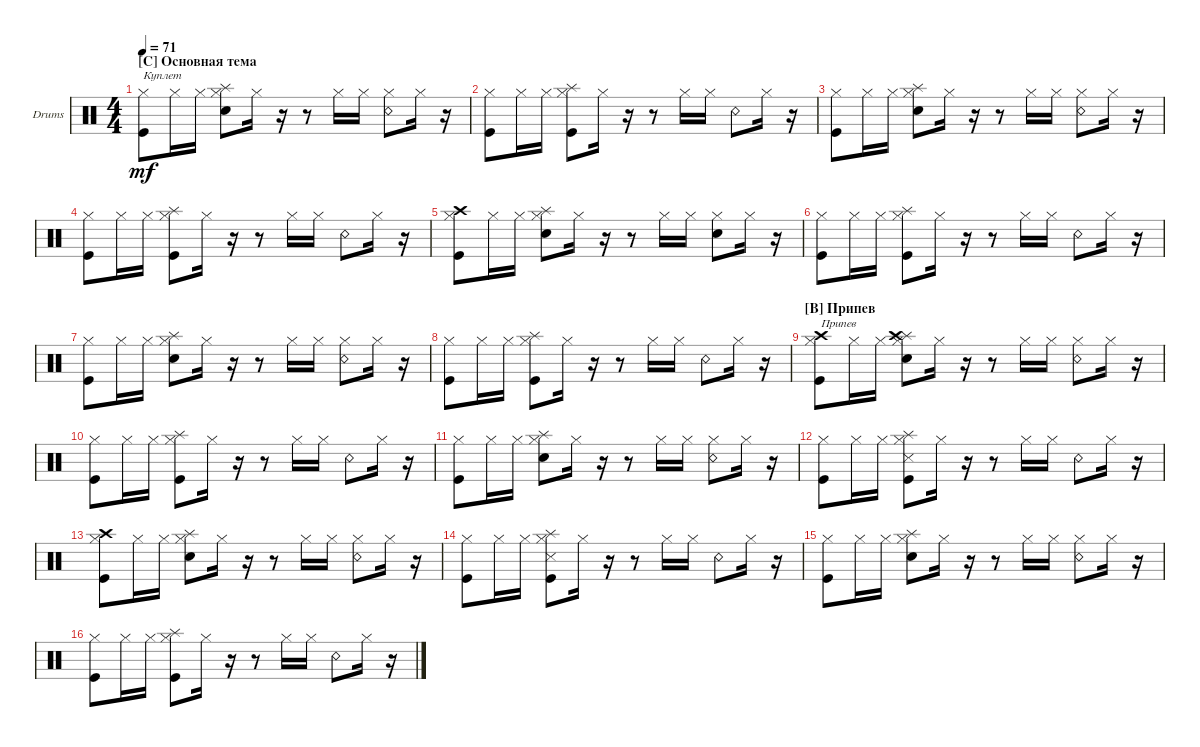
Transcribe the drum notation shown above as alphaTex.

\defaultSystemsLayout 4
\bracketExtendMode groupsimilarinstruments
\firstSystemTrackNameOrientation horizontal
\otherSystemsTrackNameOrientation horizontal
\track ("Drumkit" "Drums") {instrument percussion}
\staff {score}
\articulation defaults
\ts (4 4)
\section ("C" "Основная тема")
\tempo 71
\clef neutral
\ks c
("Hi-Hat (closed)" "Kick (hit)").8{txt "Куплет" dy mf} "Hi-Hat (closed)".16 "Hi-Hat (closed)".16 ("Hi-Hat (closed)" "Snare (hit) 2" "Splash (hit)").8 "Hi-Hat (closed)".16 r.16 r.8 "Hi-Hat (closed)".16 "Hi-Hat (closed)".16 ("Hi-Hat (closed)" "Snare (rim shot)").8 "Hi-Hat (closed)".16 r.16 |
("Hi-Hat (closed)" "Kick (hit)").8 "Hi-Hat (closed)".16 "Hi-Hat (closed)".16 ("Hi-Hat (closed)" "Splash (hit)" "Kick (hit)").8 "Hi-Hat (closed)".16 r.16 r.8 "Hi-Hat (closed)".16 "Hi-Hat (closed)".16 "Snare (rim shot)".8 "Hi-Hat (closed)".16 r.16 |
("Hi-Hat (closed)" "Kick (hit)").8 "Hi-Hat (closed)".16 "Hi-Hat (closed)".16 ("Hi-Hat (closed)" "Snare (hit) 2" "Splash (hit)").8 "Hi-Hat (closed)".16 r.16 r.8 "Hi-Hat (closed)".16 "Hi-Hat (closed)".16 ("Hi-Hat (closed)" "Snare (rim shot)").8 "Hi-Hat (closed)".16 r.16 |
("Hi-Hat (closed)" "Kick (hit)").8 "Hi-Hat (closed)".16 "Hi-Hat (closed)".16 ("Hi-Hat (closed)" "Splash (hit)" "Kick (hit)").8 "Hi-Hat (closed)".16 r.16 r.8 "Hi-Hat (closed)".16 "Hi-Hat (closed)".16 "Snare (rim shot)".8 "Hi-Hat (closed)".16 r.16 |
("Hi-Hat (closed)" "Crash high (hit)" "Kick (hit)").8 "Hi-Hat (closed)".16 "Hi-Hat (closed)".16 ("Hi-Hat (closed)" "Snare (hit) 2" "Splash (hit)").8 "Hi-Hat (closed)".16 r.16 r.8 "Hi-Hat (closed)".16 "Hi-Hat (closed)".16 ("Hi-Hat (closed)" "Snare (hit) 2").8 "Hi-Hat (closed)".16 r.16 |
("Hi-Hat (closed)" "Kick (hit)").8 "Hi-Hat (closed)".16 "Hi-Hat (closed)".16 ("Hi-Hat (closed)" "Splash (hit)" "Kick (hit)").8 "Hi-Hat (closed)".16 r.16 r.8 "Hi-Hat (closed)".16 "Hi-Hat (closed)".16 "Snare (rim shot)".8 "Hi-Hat (closed)".16 r.16 |
("Hi-Hat (closed)" "Kick (hit)").8 "Hi-Hat (closed)".16 "Hi-Hat (closed)".16 ("Hi-Hat (closed)" "Snare (hit) 2" "Splash (hit)").8 "Hi-Hat (closed)".16 r.16 r.8 "Hi-Hat (closed)".16 "Hi-Hat (closed)".16 ("Hi-Hat (closed)" "Snare (rim shot)").8 "Hi-Hat (closed)".16 r.16 |
("Hi-Hat (closed)" "Kick (hit)").8 "Hi-Hat (closed)".16 "Hi-Hat (closed)".16 ("Hi-Hat (closed)" "Splash (hit)" "Kick (hit)").8 "Hi-Hat (closed)".16 r.16 r.8 "Hi-Hat (closed)".16 "Hi-Hat (closed)".16 "Snare (rim shot)".8 "Hi-Hat (closed)".16 r.16 |
\section ("B" "Припев")
("Hi-Hat (closed)" "Crash high (hit)" "Kick (hit)").8{txt "Припев"} "Hi-Hat (closed)".16 "Hi-Hat (closed)".16 ("Hi-Hat (closed)" "Snare (hit) 2" "Splash (hit)" "Crash high (hit)").8 "Hi-Hat (closed)".16 r.16 r.8 "Hi-Hat (closed)".16 "Hi-Hat (closed)".16 ("Hi-Hat (closed)" "Snare (rim shot)").8 "Hi-Hat (closed)".16 r.16 |
("Hi-Hat (closed)" "Kick (hit)").8 "Hi-Hat (closed)".16 "Hi-Hat (closed)".16 ("Hi-Hat (closed)" "Splash (hit)" "Kick (hit)").8 "Hi-Hat (closed)".16 r.16 r.8 "Hi-Hat (closed)".16 "Hi-Hat (closed)".16 "Snare (rim shot)".8 "Hi-Hat (closed)".16 r.16 |
("Hi-Hat (closed)" "Kick (hit)").8 "Hi-Hat (closed)".16 "Hi-Hat (closed)".16 ("Hi-Hat (closed)" "Snare (hit) 2" "Splash (hit)").8 "Hi-Hat (closed)".16 r.16 r.8 "Hi-Hat (closed)".16 "Hi-Hat (closed)".16 ("Hi-Hat (closed)" "Snare (rim shot)").8 "Hi-Hat (closed)".16 r.16 |
("Hi-Hat (closed)" "Kick (hit)").8 "Hi-Hat (closed)".16 "Hi-Hat (closed)".16 ("Hi-Hat (closed)" "Snare (side stick) 3" "Splash (hit)" "Kick (hit)").8 "Hi-Hat (closed)".16 r.16 r.8 "Hi-Hat (closed)".16 "Hi-Hat (closed)".16 "Snare (rim shot)".8 "Hi-Hat (closed)".16 r.16 |
("Hi-Hat (closed)" "Crash high (hit)" "Kick (hit)").8 "Hi-Hat (closed)".16 "Hi-Hat (closed)".16 ("Hi-Hat (closed)" "Snare (hit) 2" "Splash (hit)").8 "Hi-Hat (closed)".16 r.16 r.8 "Hi-Hat (closed)".16 "Hi-Hat (closed)".16 ("Hi-Hat (closed)" "Snare (rim shot)").8 "Hi-Hat (closed)".16 r.16 |
("Hi-Hat (closed)" "Kick (hit)").8 "Hi-Hat (closed)".16 "Hi-Hat (closed)".16 ("Hi-Hat (closed)" "Snare (side stick) 3" "Splash (hit)" "Kick (hit)").8 "Hi-Hat (closed)".16 r.16 r.8 "Hi-Hat (closed)".16 "Hi-Hat (closed)".16 "Snare (rim shot)".8 "Hi-Hat (closed)".16 r.16 |
("Hi-Hat (closed)" "Kick (hit)").8 "Hi-Hat (closed)".16 "Hi-Hat (closed)".16 ("Hi-Hat (closed)" "Snare (hit) 2" "Splash (hit)").8 "Hi-Hat (closed)".16 r.16 r.8 "Hi-Hat (closed)".16 "Hi-Hat (closed)".16 ("Hi-Hat (closed)" "Snare (rim shot)").8 "Hi-Hat (closed)".16 r.16 |
("Hi-Hat (closed)" "Kick (hit)").8 "Hi-Hat (closed)".16 "Hi-Hat (closed)".16 ("Hi-Hat (closed)" "Splash (hit)" "Kick (hit)").8 "Hi-Hat (closed)".16 r.16 r.8 "Hi-Hat (closed)".16 "Hi-Hat (closed)".16 "Snare (rim shot)".8 "Hi-Hat (closed)".16 r.16
